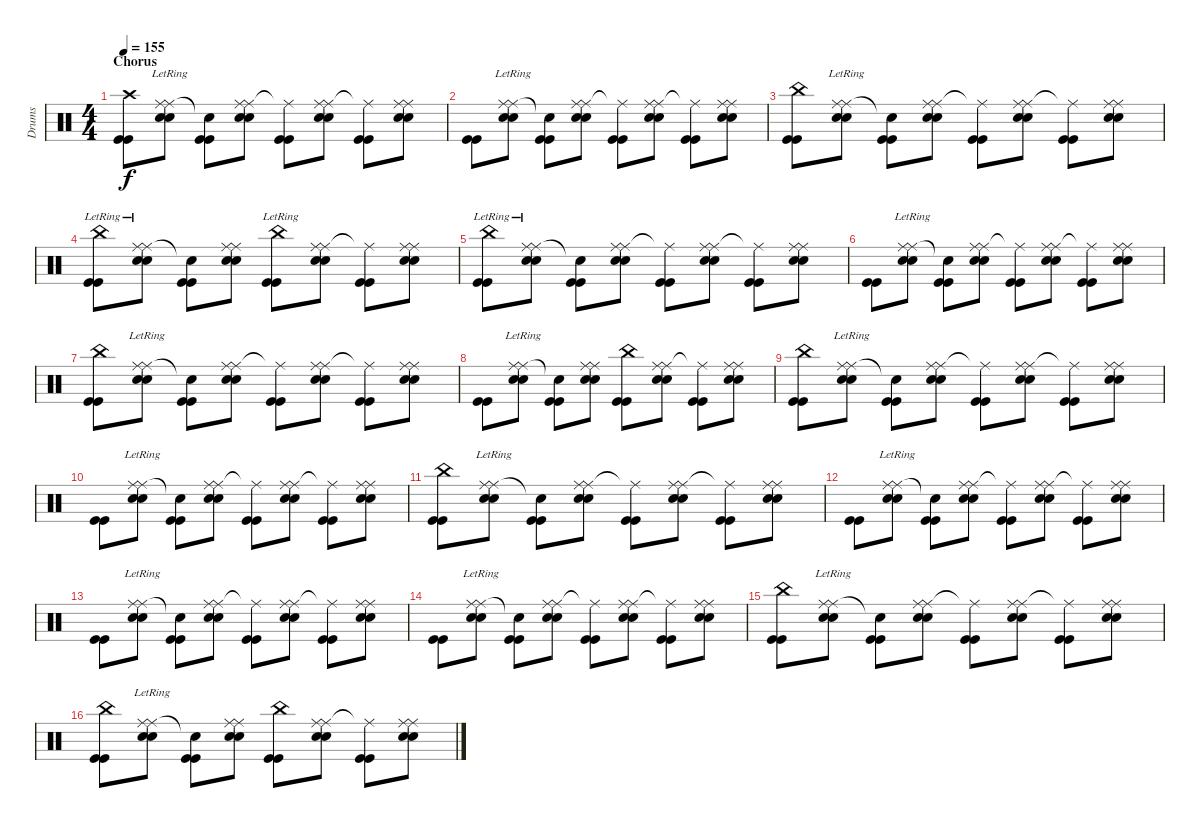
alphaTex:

\track ("Drums" "Drums") {instrument percussion}
\staff {score}
\articulation defaults
\ts (4 4)
\section ("" "Chorus")
\tempo 155
\clef neutral
\ks c
("Crash high (hit)" "Kick (hit)" "Kick (hit)").8{dy f} ("Ride (middle)"{lr} "Snare (hit) 2" "Snare (hit) 2" "Ride (middle)").8 ("Snare (hit)"{t} "Kick (hit)" "Kick (hit)").8 ("Ride (middle)" "Snare (hit) 2" "Snare (hit) 2" "Ride (middle)").8 ("Ride (middle)"{t} "Kick (hit)" "Kick (hit)").8 ("Ride (middle)" "Snare (hit) 2" "Snare (hit) 2" "Ride (middle)").8 ("Ride (middle)"{t} "Kick (hit)" "Kick (hit)").8 ("Ride (middle)" "Snare (hit) 2" "Snare (hit) 2" "Ride (middle)").8 |
("Kick (hit)" "Kick (hit)").8 ("Ride (middle)"{lr} "Snare (hit) 2" "Snare (hit) 2" "Ride (middle)").8 ("Snare (hit)"{t} "Kick (hit)" "Kick (hit)").8 ("Ride (middle)" "Snare (hit) 2" "Snare (hit) 2" "Ride (middle)").8 ("Ride (middle)"{t} "Kick (hit)" "Kick (hit)").8 ("Ride (middle)" "Snare (hit) 2" "Snare (hit) 2" "Ride (middle)").8 ("Ride (middle)"{t} "Kick (hit)" "Kick (hit)").8 ("Ride (middle)" "Snare (hit) 2" "Snare (hit) 2" "Ride (middle)").8 |
("China (hit)" "Kick (hit)" "Kick (hit)").8 ("Ride (middle)"{lr} "Snare (hit) 2" "Snare (hit) 2" "Ride (middle)").8 ("Snare (hit)"{t} "Kick (hit)" "Kick (hit)").8 ("Ride (middle)" "Snare (hit) 2" "Snare (hit) 2" "Ride (middle)").8 ("Ride (middle)"{t} "Kick (hit)" "Kick (hit)").8 ("Ride (middle)" "Snare (hit) 2" "Snare (hit) 2" "Ride (middle)").8 ("Ride (middle)"{t} "Kick (hit)" "Kick (hit)").8 ("Ride (middle)" "Snare (hit) 2" "Snare (hit) 2" "Ride (middle)").8 |
("China (hit)"{lr} "Kick (hit)" "Kick (hit)").8 ("Ride (middle)"{lr} "Snare (hit) 2" "Snare (hit) 2" "Ride (middle)").8 ("Snare (hit)"{t} "Kick (hit)" "Kick (hit)").8 ("Ride (middle)" "Snare (hit) 2" "Snare (hit) 2" "Ride (middle)").8 ("China (hit)"{lr} "Kick (hit)" "Kick (hit)").8 ("Ride (middle)" "Snare (hit) 2" "Snare (hit) 2" "Ride (middle)").8 ("Ride (middle)"{t} "Kick (hit)" "Kick (hit)").8 ("Ride (middle)" "Snare (hit) 2" "Snare (hit) 2" "Ride (middle)").8 |
("China (hit)"{lr} "Kick (hit)" "Kick (hit)").8 ("Ride (middle)"{lr} "Snare (hit) 2" "Snare (hit) 2" "Ride (middle)").8 ("Snare (hit)"{t} "Kick (hit)" "Kick (hit)").8 ("Ride (middle)" "Snare (hit) 2" "Snare (hit) 2" "Ride (middle)").8 ("Ride (middle)"{t} "Kick (hit)" "Kick (hit)").8 ("Ride (middle)" "Snare (hit) 2" "Snare (hit) 2" "Ride (middle)").8 ("Ride (middle)"{t} "Kick (hit)" "Kick (hit)").8 ("Ride (middle)" "Snare (hit) 2" "Snare (hit) 2" "Ride (middle)").8 |
("Kick (hit)" "Kick (hit)").8 ("Ride (middle)"{lr} "Snare (hit) 2" "Snare (hit) 2" "Ride (middle)").8 ("Snare (hit)"{t} "Kick (hit)" "Kick (hit)").8 ("Ride (middle)" "Snare (hit) 2" "Snare (hit) 2" "Ride (middle)").8 ("Ride (middle)"{t} "Kick (hit)" "Kick (hit)").8 ("Ride (middle)" "Snare (hit) 2" "Snare (hit) 2" "Ride (middle)").8 ("Ride (middle)"{t} "Kick (hit)" "Kick (hit)").8 ("Ride (middle)" "Snare (hit) 2" "Snare (hit) 2" "Ride (middle)").8 |
("China (hit)" "Kick (hit)" "Kick (hit)").8 ("Ride (middle)"{lr} "Snare (hit) 2" "Snare (hit) 2" "Ride (middle)").8 ("Snare (hit)"{t} "Kick (hit)" "Kick (hit)").8 ("Ride (middle)" "Snare (hit) 2" "Snare (hit) 2" "Ride (middle)").8 ("Ride (middle)"{t} "Kick (hit)" "Kick (hit)").8 ("Ride (middle)" "Snare (hit) 2" "Snare (hit) 2" "Ride (middle)").8 ("Ride (middle)"{t} "Kick (hit)" "Kick (hit)").8 ("Ride (middle)" "Snare (hit) 2" "Snare (hit) 2" "Ride (middle)").8 |
("Kick (hit)" "Kick (hit)").8 ("Ride (middle)"{lr} "Snare (hit) 2" "Snare (hit) 2" "Ride (middle)").8 ("Snare (hit)"{t} "Kick (hit)" "Kick (hit)").8 ("Ride (middle)" "Snare (hit) 2" "Snare (hit) 2" "Ride (middle)").8 ("China (hit)" "Kick (hit)" "Kick (hit)").8 ("Ride (middle)" "Snare (hit) 2" "Snare (hit) 2" "Ride (middle)").8 ("Ride (middle)"{t} "Kick (hit)" "Kick (hit)").8 ("Ride (middle)" "Snare (hit) 2" "Snare (hit) 2" "Ride (middle)").8 |
("China (hit)" "Kick (hit)" "Kick (hit)").8 ("Ride (middle)"{lr} "Snare (hit) 2" "Snare (hit) 2" "Ride (middle)").8 ("Snare (hit)"{t} "Kick (hit)" "Kick (hit)").8 ("Ride (middle)" "Snare (hit) 2" "Snare (hit) 2" "Ride (middle)").8 ("Ride (middle)"{t} "Kick (hit)" "Kick (hit)").8 ("Ride (middle)" "Snare (hit) 2" "Snare (hit) 2" "Ride (middle)").8 ("Ride (middle)"{t} "Kick (hit)" "Kick (hit)").8 ("Ride (middle)" "Snare (hit) 2" "Snare (hit) 2" "Ride (middle)").8 |
("Kick (hit)" "Kick (hit)").8 ("Ride (middle)"{lr} "Snare (hit) 2" "Snare (hit) 2" "Ride (middle)").8 ("Snare (hit)"{t} "Kick (hit)" "Kick (hit)").8 ("Ride (middle)" "Snare (hit) 2" "Snare (hit) 2" "Ride (middle)").8 ("Ride (middle)"{t} "Kick (hit)" "Kick (hit)").8 ("Ride (middle)" "Snare (hit) 2" "Snare (hit) 2" "Ride (middle)").8 ("Ride (middle)"{t} "Kick (hit)" "Kick (hit)").8 ("Ride (middle)" "Snare (hit) 2" "Snare (hit) 2" "Ride (middle)").8 |
("China (hit)" "Kick (hit)" "Kick (hit)").8 ("Ride (middle)"{lr} "Snare (hit) 2" "Snare (hit) 2" "Ride (middle)").8 ("Snare (hit)"{t} "Kick (hit)" "Kick (hit)").8 ("Ride (middle)" "Snare (hit) 2" "Snare (hit) 2" "Ride (middle)").8 ("Ride (middle)"{t} "Kick (hit)" "Kick (hit)").8 ("Ride (middle)" "Snare (hit) 2" "Snare (hit) 2" "Ride (middle)").8 ("Ride (middle)"{t} "Kick (hit)" "Kick (hit)").8 ("Ride (middle)" "Snare (hit) 2" "Snare (hit) 2" "Ride (middle)").8 |
("Kick (hit)" "Kick (hit)").8 ("Ride (middle)"{lr} "Snare (hit) 2" "Snare (hit) 2" "Ride (middle)").8 ("Snare (hit)"{t} "Kick (hit)" "Kick (hit)").8 ("Ride (middle)" "Snare (hit) 2" "Snare (hit) 2" "Ride (middle)").8 ("Ride (middle)"{t} "Kick (hit)" "Kick (hit)").8 ("Ride (middle)" "Snare (hit) 2" "Snare (hit) 2" "Ride (middle)").8 ("Ride (middle)"{t} "Kick (hit)" "Kick (hit)").8 ("Ride (middle)" "Snare (hit) 2" "Snare (hit) 2" "Ride (middle)").8 |
("Kick (hit)" "Kick (hit)").8 ("Ride (middle)"{lr} "Snare (hit) 2" "Snare (hit) 2" "Ride (middle)").8 ("Snare (hit)"{t} "Kick (hit)" "Kick (hit)").8 ("Ride (middle)" "Snare (hit) 2" "Snare (hit) 2" "Ride (middle)").8 ("Ride (middle)"{t} "Kick (hit)" "Kick (hit)").8 ("Ride (middle)" "Snare (hit) 2" "Snare (hit) 2" "Ride (middle)").8 ("Ride (middle)"{t} "Kick (hit)" "Kick (hit)").8 ("Ride (middle)" "Snare (hit) 2" "Snare (hit) 2" "Ride (middle)").8 |
("Kick (hit)" "Kick (hit)").8 ("Ride (middle)"{lr} "Snare (hit) 2" "Snare (hit) 2" "Ride (middle)").8 ("Snare (hit)"{t} "Kick (hit)" "Kick (hit)").8 ("Ride (middle)" "Snare (hit) 2" "Snare (hit) 2" "Ride (middle)").8 ("Ride (middle)"{t} "Kick (hit)" "Kick (hit)").8 ("Ride (middle)" "Snare (hit) 2" "Snare (hit) 2" "Ride (middle)").8 ("Ride (middle)"{t} "Kick (hit)" "Kick (hit)").8 ("Ride (middle)" "Snare (hit) 2" "Snare (hit) 2" "Ride (middle)").8 |
("China (hit)" "Kick (hit)" "Kick (hit)").8 ("Ride (middle)"{lr} "Snare (hit) 2" "Snare (hit) 2" "Ride (middle)").8 ("Snare (hit)"{t} "Kick (hit)" "Kick (hit)").8 ("Ride (middle)" "Snare (hit) 2" "Snare (hit) 2" "Ride (middle)").8 ("Ride (middle)"{t} "Kick (hit)" "Kick (hit)").8 ("Ride (middle)" "Snare (hit) 2" "Snare (hit) 2" "Ride (middle)").8 ("Ride (middle)"{t} "Kick (hit)" "Kick (hit)").8 ("Ride (middle)" "Snare (hit) 2" "Snare (hit) 2" "Ride (middle)").8 |
("China (hit)" "Kick (hit)" "Kick (hit)").8 ("Ride (middle)"{lr} "Snare (hit) 2" "Snare (hit) 2" "Ride (middle)").8 ("Snare (hit)"{t} "Kick (hit)" "Kick (hit)").8 ("Ride (middle)" "Snare (hit) 2" "Snare (hit) 2" "Ride (middle)").8 ("China (hit)" "Kick (hit)" "Kick (hit)").8 ("Ride (middle)" "Snare (hit) 2" "Snare (hit) 2" "Ride (middle)").8 ("Ride (middle)"{t} "Kick (hit)" "Kick (hit)").8 ("Ride (middle)" "Snare (hit) 2" "Snare (hit) 2" "Ride (middle)").8
